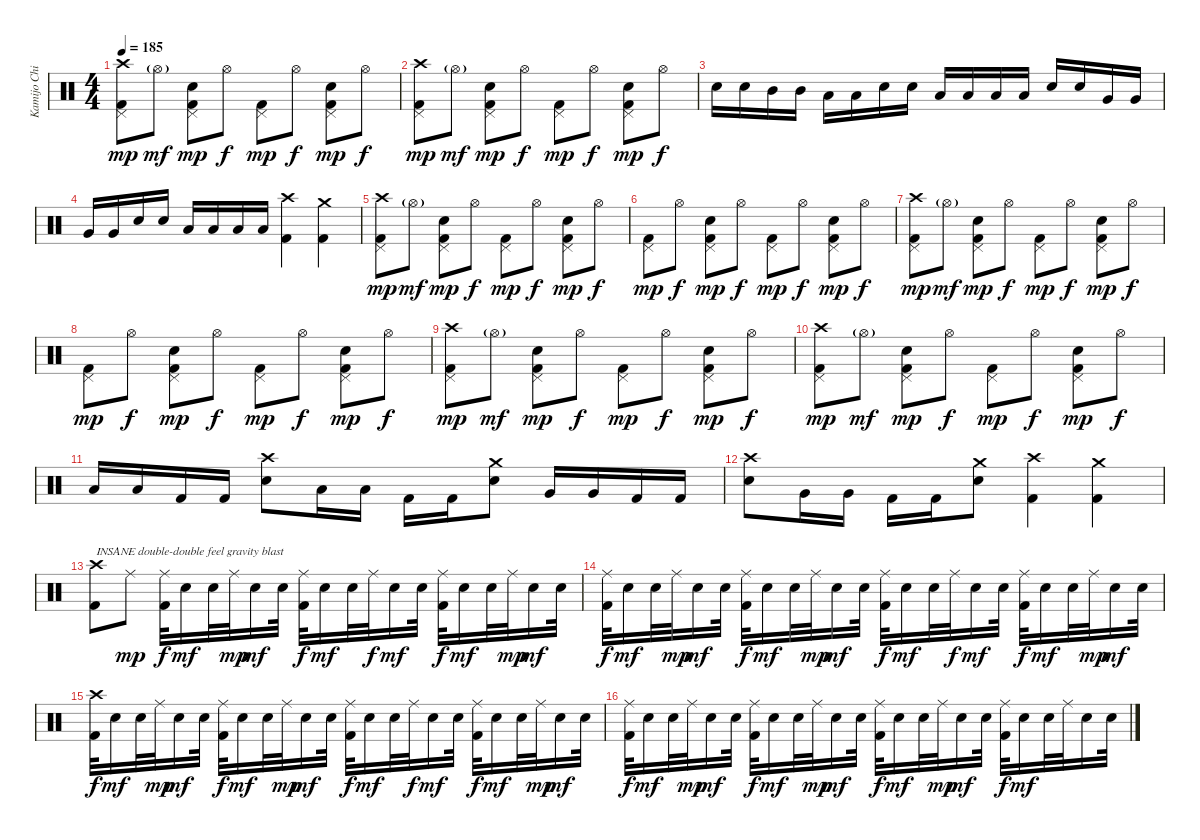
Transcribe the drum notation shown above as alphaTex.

\track ("Kamijo Chihiro" "Kamijo Chi") {instrument percussion}
\staff {score}
\articulation defaults
\ts (4 4)
\tempo 185
\clef neutral
\ks c
("Crash high (hit)" "Pedal Hi-Hat (hit)" "Kick (hit) 2").8{dy mp} "Hi-Hat (open)"{g}.8{dy mf} ("Pedal Hi-Hat (hit)" "Snare (hit) 2" "Kick (hit) 2").8{dy mp} "Hi-Hat (open)".8{dy f} ("Pedal Hi-Hat (hit)" "Kick (hit) 2").8{dy mp} "Hi-Hat (open)".8{dy f} ("Pedal Hi-Hat (hit)" "Snare (hit) 2" "Kick (hit) 2").8{dy mp} "Hi-Hat (open)".8{dy f} |
("Crash high (hit)" "Pedal Hi-Hat (hit)" "Kick (hit) 2").8{dy mp} "Hi-Hat (open)"{g}.8{dy mf} ("Pedal Hi-Hat (hit)" "Snare (hit) 2" "Kick (hit) 2").8{dy mp} "Hi-Hat (open)".8{dy f} ("Pedal Hi-Hat (hit)" "Kick (hit) 2").8{dy mp} "Hi-Hat (open)".8{dy f} ("Pedal Hi-Hat (hit)" "Snare (hit) 2" "Kick (hit) 2").8{dy mp} "Hi-Hat (open)".8{dy f} |
"Snare (hit) 2".16 "Snare (hit) 2".16 "Mid Tom (hit)".16 "Mid Tom (hit)".16 "Low Tom (hit)".16 "Low Tom (hit)".16 "Snare (hit) 2".16 "Snare (hit) 2".16 "Low Tom (hit)".16 "Low Tom (hit)".16 "Low Tom (hit)".16 "Low Tom (hit)".16 "Snare (hit) 2".16 "Snare (hit) 2".16 "Very Low Tom (hit)".16 "Very Low Tom (hit)".16 |
"Very Low Tom (hit)".16 "Very Low Tom (hit)".16 "Snare (hit) 2".16 "Snare (hit) 2".16 "Low Floor Tom (hit)".16 "Low Floor Tom (hit)".16 "Low Floor Tom (hit)".16 "Low Floor Tom (hit)".16 ("Crash high (hit)" "Kick (hit) 2").4 ("Crash medium (hit)" "Kick (hit) 2").4 |
("Crash high (hit)" "Pedal Hi-Hat (hit)" "Kick (hit) 2").8{dy mp} "Hi-Hat (open)"{g}.8{dy mf} ("Pedal Hi-Hat (hit)" "Snare (hit) 2" "Kick (hit) 2").8{dy mp} "Hi-Hat (open)".8{dy f} ("Pedal Hi-Hat (hit)" "Kick (hit) 2").8{dy mp} "Hi-Hat (open)".8{dy f} ("Pedal Hi-Hat (hit)" "Snare (hit) 2" "Kick (hit) 2").8{dy mp} "Hi-Hat (open)".8{dy f} |
("Pedal Hi-Hat (hit)" "Kick (hit) 2").8{dy mp} "Hi-Hat (open)".8{dy f} ("Pedal Hi-Hat (hit)" "Snare (hit) 2" "Kick (hit) 2").8{dy mp} "Hi-Hat (open)".8{dy f} ("Pedal Hi-Hat (hit)" "Kick (hit) 2").8{dy mp} "Hi-Hat (open)".8{dy f} ("Pedal Hi-Hat (hit)" "Snare (hit) 2" "Kick (hit) 2").8{dy mp} "Hi-Hat (open)".8{dy f} |
("Crash high (hit)" "Pedal Hi-Hat (hit)" "Kick (hit) 2").8{dy mp} "Hi-Hat (open)"{g}.8{dy mf} ("Pedal Hi-Hat (hit)" "Snare (hit) 2" "Kick (hit) 2").8{dy mp} "Hi-Hat (open)".8{dy f} ("Pedal Hi-Hat (hit)" "Kick (hit) 2").8{dy mp} "Hi-Hat (open)".8{dy f} ("Pedal Hi-Hat (hit)" "Snare (hit) 2" "Kick (hit) 2").8{dy mp} "Hi-Hat (open)".8{dy f} |
("Pedal Hi-Hat (hit)" "Kick (hit) 2").8{dy mp} "Hi-Hat (open)".8{dy f} ("Pedal Hi-Hat (hit)" "Snare (hit) 2" "Kick (hit) 2").8{dy mp} "Hi-Hat (open)".8{dy f} ("Pedal Hi-Hat (hit)" "Kick (hit) 2").8{dy mp} "Hi-Hat (open)".8{dy f} ("Pedal Hi-Hat (hit)" "Snare (hit) 2" "Kick (hit) 2").8{dy mp} "Hi-Hat (open)".8{dy f} |
("Crash high (hit)" "Pedal Hi-Hat (hit)" "Kick (hit) 2").8{dy mp} "Hi-Hat (open)"{g}.8{dy mf} ("Pedal Hi-Hat (hit)" "Snare (hit) 2" "Kick (hit) 2").8{dy mp} "Hi-Hat (open)".8{dy f} ("Pedal Hi-Hat (hit)" "Kick (hit) 2").8{dy mp} "Hi-Hat (open)".8{dy f} ("Pedal Hi-Hat (hit)" "Snare (hit) 2" "Kick (hit) 2").8{dy mp} "Hi-Hat (open)".8{dy f} |
("Crash high (hit)" "Pedal Hi-Hat (hit)" "Kick (hit) 2").8{dy mp} "Hi-Hat (open)"{g}.8{dy mf} ("Pedal Hi-Hat (hit)" "Snare (hit) 2" "Kick (hit) 2").8{dy mp} "Hi-Hat (open)".8{dy f} ("Pedal Hi-Hat (hit)" "Kick (hit) 2").8{dy mp} "Hi-Hat (open)".8{dy f} ("Pedal Hi-Hat (hit)" "Snare (hit) 2" "Kick (hit) 2").8{dy mp} "Hi-Hat (open)".8{dy f} |
"Low Tom (hit)".16 "Low Tom (hit)".16 "Kick (hit) 2".16 "Kick (hit) 2".16 ("Crash high (hit)" "Snare (hit) 2").8 "Low Tom (hit)".16 "Low Tom (hit)".16 "Kick (hit) 2".16 "Kick (hit) 2".16 ("Crash medium (hit)" "Snare (hit) 2").8 "Very Low Tom (hit)".16 "Very Low Tom (hit)".16 "Kick (hit) 2".16 "Kick (hit) 2".16 |
("Crash high (hit)" "Snare (hit) 2").8 "Very Low Tom (hit)".16 "Very Low Tom (hit)".16 "Kick (hit) 2".16 "Kick (hit) 2".16 ("Crash medium (hit)" "Snare (hit) 2").8 ("Crash high (hit)" "Kick (hit) 2").4 ("Crash medium (hit)" "Kick (hit) 2").4 |
("Crash high (hit)" "Kick (hit) 2").8{txt "INSANE double-double feel gravity blast"} "Ride (middle)".8{dy mp} ("Ride (middle)" "Kick (hit) 2").32{dy f} "Snare (hit) 2".16{dy mf} "Snare (hit) 2".32 "Ride (middle)".32{dy mp} "Snare (hit) 2".16{dy mf} "Snare (hit) 2".32 ("Ride (middle)" "Kick (hit) 2").32{dy f} "Snare (hit) 2".16{dy mf} "Snare (hit) 2".32 "Ride (middle)".32{dy f} "Snare (hit) 2".16{dy mf} "Snare (hit) 2".32 ("Ride (middle)" "Kick (hit) 2").32{dy f} "Snare (hit) 2".16{dy mf} "Snare (hit) 2".32 "Ride (middle)".32{dy mp} "Snare (hit) 2".16{dy mf} "Snare (hit) 2".32 |
("Ride (middle)" "Kick (hit) 2").32{dy f} "Snare (hit) 2".16{dy mf} "Snare (hit) 2".32 "Ride (middle)".32{dy mp} "Snare (hit) 2".16{dy mf} "Snare (hit) 2".32 ("Ride (middle)" "Kick (hit) 2").32{dy f} "Snare (hit) 2".16{dy mf} "Snare (hit) 2".32 "Ride (middle)".32{dy mp} "Snare (hit) 2".16{dy mf} "Snare (hit) 2".32 ("Ride (middle)" "Kick (hit) 2").32{dy f} "Snare (hit) 2".16{dy mf} "Snare (hit) 2".32 "Ride (middle)".32{dy f} "Snare (hit) 2".16{dy mf} "Snare (hit) 2".32 ("Ride (middle)" "Kick (hit) 2").32{dy f} "Snare (hit) 2".16{dy mf} "Snare (hit) 2".32 "Ride (middle)".32{dy mp} "Snare (hit) 2".16{dy mf} "Snare (hit) 2".32 |
("Crash high (hit)" "Kick (hit) 2").32{dy f} "Snare (hit) 2".16{dy mf} "Snare (hit) 2".32 "Ride (middle)".32{dy mp} "Snare (hit) 2".16{dy mf} "Snare (hit) 2".32 ("Ride (middle)" "Kick (hit) 2").32{dy f} "Snare (hit) 2".16{dy mf} "Snare (hit) 2".32 "Ride (middle)".32{dy mp} "Snare (hit) 2".16{dy mf} "Snare (hit) 2".32 ("Ride (middle)" "Kick (hit) 2").32{dy f} "Snare (hit) 2".16{dy mf} "Snare (hit) 2".32 "Ride (middle)".32{dy f} "Snare (hit) 2".16{dy mf} "Snare (hit) 2".32 ("Ride (middle)" "Kick (hit) 2").32{dy f} "Snare (hit) 2".16{dy mf} "Snare (hit) 2".32 "Ride (middle)".32{dy mp} "Snare (hit) 2".16{dy mf} "Snare (hit) 2".32 |
("Ride (middle)" "Kick (hit) 2").32{dy f} "Snare (hit) 2".16{dy mf} "Snare (hit) 2".32 "Ride (middle)".32{dy mp} "Snare (hit) 2".16{dy mf} "Snare (hit) 2".32 ("Ride (middle)" "Kick (hit) 2").32{dy f} "Snare (hit) 2".16{dy mf} "Snare (hit) 2".32 "Ride (middle)".32{dy mp} "Snare (hit) 2".16{dy mf} "Snare (hit) 2".32 ("Ride (middle)" "Kick (hit) 2").32{dy f} "Snare (hit) 2".16{dy mf} "Snare (hit) 2".32 "Ride (middle)".32{dy mp} "Snare (hit) 2".16{dy mf} "Snare (hit) 2".32 ("Ride (middle)" "Kick (hit) 2").32{dy f} "Snare (hit) 2".16{dy mf} "Snare (hit) 2".32 "Ride (middle)".32 "Snare (hit) 2".16 "Snare (hit) 2".32
